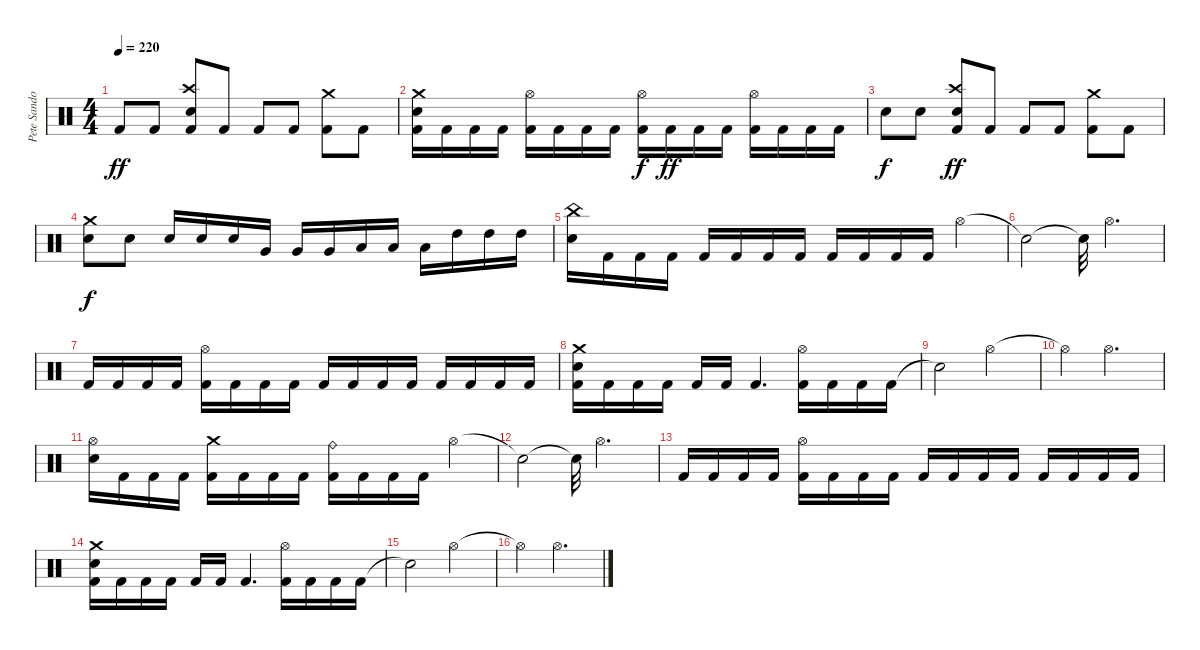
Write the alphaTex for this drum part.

\track ("Pete Sandoval" "Pete Sando") {instrument percussion}
\staff {score}
\articulation defaults
\ts (4 4)
\tempo 220
\clef neutral
\ks c "Kick (hit) 2".8{dy ff} "Kick (hit) 2".8
("Crash high (hit)" "Electric Snare (hit)" "Kick (hit) 2").8 "Kick (hit) 2".8 "Kick (hit) 2".8 "Kick (hit) 2".8 ("Crash medium (hit)" "Kick (hit) 2").8 "Kick (hit) 2".8 |
("Crash medium (hit)" "Electric Snare (hit)" "Kick (hit) 2").16 "Kick (hit) 2".16 "Kick (hit) 2".16 "Kick (hit) 2".16 ("Hi-Hat (open)" "Kick (hit) 2").16 "Kick (hit) 2".16 "Kick (hit) 2".16 "Kick (hit) 2".16 ("Hi-Hat (open)" "Kick (hit) 2").16{dy f} "Kick (hit) 2".16{dy ff} "Kick (hit) 2".16 "Kick (hit) 2".16 ("Hi-Hat (open)" "Kick (hit) 2").16 "Kick (hit) 2".16 "Kick (hit) 2".16 "Kick (hit) 2".16 |
"Electric Snare (hit)".8{dy f} "Electric Snare (hit)".8 ("Crash high (hit)" "Electric Snare (hit)" "Kick (hit) 2").8{dy ff} "Kick (hit) 2".8 "Kick (hit) 2".8 "Kick (hit) 2".8 ("Crash medium (hit)" "Kick (hit) 2").8 "Kick (hit) 2".8 |
("Crash medium (hit)" "Electric Snare (hit)").8{dy f} "Electric Snare (hit)".8 "Electric Snare (hit)".16 "Electric Snare (hit)".16 "Electric Snare (hit)".16 "Very Low Tom (hit)".16 "Very Low Tom (hit)".16 "Very Low Tom (hit)".16 "Low Tom (hit)".16 "Low Tom (hit)".16 "Low Tom (hit)".16 "High Tom (hit)".16 "High Tom (hit)".16 "High Tom (hit)".16 |
("China (hit)" "Electric Snare (hit)").16 "Kick (hit) 2".16 "Kick (hit) 2".16 "Kick (hit) 2".16 "Kick (hit) 2".16 "Kick (hit) 2".16 "Kick (hit) 2".16 "Kick (hit) 2".16 "Kick (hit) 2".16 "Kick (hit) 2".16 "Kick (hit) 2".16 "Kick (hit) 2".16 "Hi-Hat (open)".4 |
"Snare (hit)"{t}.2 "Snare (hit)"{t}.32 "Hi-Hat (open)".4{d} |
"Kick (hit) 2".16 "Kick (hit) 2".16 "Kick (hit) 2".16 "Kick (hit) 2".16 ("Hi-Hat (open)" "Kick (hit) 2").16 "Kick (hit) 2".16 "Kick (hit) 2".16 "Kick (hit) 2".16 "Kick (hit) 2".16 "Kick (hit) 2".16 "Kick (hit) 2".16 "Kick (hit) 2".16 "Kick (hit) 2".16 "Kick (hit) 2".16 "Kick (hit) 2".16 "Kick (hit) 2".16 |
("Crash medium (hit)" "Electric Snare (hit)" "Kick (hit) 2").16 "Kick (hit) 2".16 "Kick (hit) 2".16 "Kick (hit) 2".16 "Kick (hit) 2".16 "Kick (hit) 2".16 "Kick (hit) 2".4{d} ("Hi-Hat (open)" "Kick (hit) 2").16 "Kick (hit) 2".16 "Kick (hit) 2".16 "Kick (hit) 2".16 |
"Snare (hit)"{t}.2 "Hi-Hat (open)".2 |
"Hi-Hat (open)"{t}.4 "Hi-Hat (open)".2{d} |
("Hi-Hat (open)" "Electric Snare (hit)").16 "Kick (hit) 2".16 "Kick (hit) 2".16 "Kick (hit) 2".16 ("Crash medium (hit)" "Kick (hit) 2").16 "Kick (hit) 2".16 "Kick (hit) 2".16 "Kick (hit) 2".16 ("Ride (bell)" "Kick (hit) 2").16 "Kick (hit) 2".16 "Kick (hit) 2".16 "Kick (hit) 2".16 "Hi-Hat (open)".4 |
"Snare (hit)"{t}.2 "Snare (hit)"{t}.32 "Hi-Hat (open)".2{d} |
"Kick (hit) 2".16 "Kick (hit) 2".16 "Kick (hit) 2".16 "Kick (hit) 2".16 ("Hi-Hat (open)" "Kick (hit) 2").16 "Kick (hit) 2".16 "Kick (hit) 2".16 "Kick (hit) 2".16 "Kick (hit) 2".16 "Kick (hit) 2".16 "Kick (hit) 2".16 "Kick (hit) 2".16 "Kick (hit) 2".16 "Kick (hit) 2".16 "Kick (hit) 2".16 "Kick (hit) 2".16 |
("Crash medium (hit)" "Electric Snare (hit)" "Kick (hit) 2").16 "Kick (hit) 2".16 "Kick (hit) 2".16 "Kick (hit) 2".16 "Kick (hit) 2".16 "Kick (hit) 2".16 "Kick (hit) 2".4{d} ("Hi-Hat (open)" "Kick (hit) 2").16 "Kick (hit) 2".16 "Kick (hit) 2".16 "Kick (hit) 2".16 |
"Snare (hit)"{t}.2 "Hi-Hat (open)".2 |
"Hi-Hat (open)"{t}.4 "Hi-Hat (open)".2{d}
